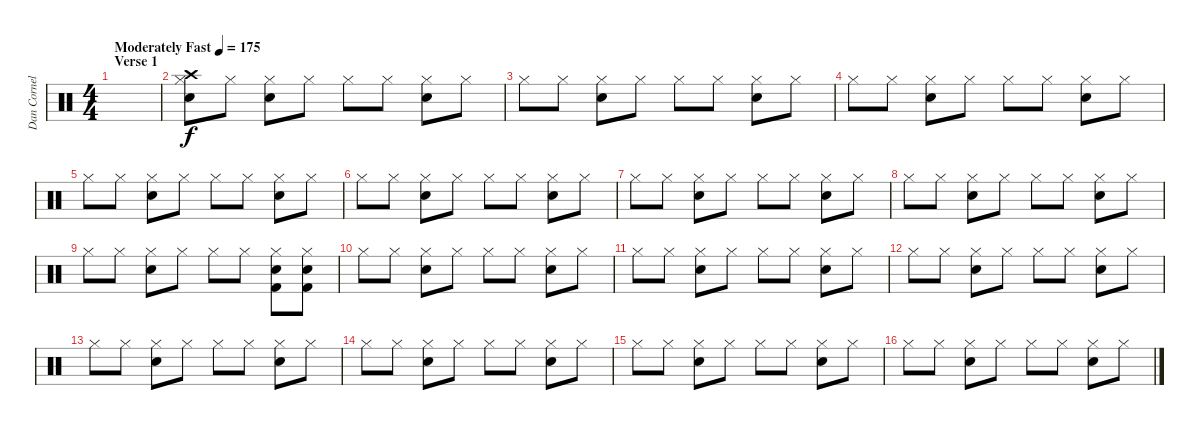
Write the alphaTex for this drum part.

\track ("Dan Cornelius" "Dan Cornel") {instrument percussion}
\staff {score}
\articulation defaults
\ts (4 4)
\section ("" "Verse 1")
\tempo (175 "Moderately Fast")
\clef neutral
\ks c
|
("Hi-Hat (closed)" "Crash high (hit)" "Electric Snare (hit)").8 "Hi-Hat (closed)".8 ("Hi-Hat (closed)" "Electric Snare (hit)").8 "Hi-Hat (closed)".8 "Hi-Hat (closed)".8 "Hi-Hat (closed)".8 ("Hi-Hat (closed)" "Electric Snare (hit)").8 "Hi-Hat (closed)".8 |
"Hi-Hat (closed)".8 "Hi-Hat (closed)".8 ("Hi-Hat (closed)" "Electric Snare (hit)").8 "Hi-Hat (closed)".8 "Hi-Hat (closed)".8 "Hi-Hat (closed)".8 ("Hi-Hat (closed)" "Electric Snare (hit)").8 "Hi-Hat (closed)".8 |
"Hi-Hat (closed)".8 "Hi-Hat (closed)".8 ("Hi-Hat (closed)" "Electric Snare (hit)").8 "Hi-Hat (closed)".8 "Hi-Hat (closed)".8 "Hi-Hat (closed)".8 ("Hi-Hat (closed)" "Electric Snare (hit)").8 "Hi-Hat (closed)".8 |
"Hi-Hat (closed)".8 "Hi-Hat (closed)".8 ("Hi-Hat (closed)" "Electric Snare (hit)").8 "Hi-Hat (closed)".8 "Hi-Hat (closed)".8 "Hi-Hat (closed)".8 ("Hi-Hat (closed)" "Electric Snare (hit)").8 "Hi-Hat (closed)".8 |
"Hi-Hat (closed)".8 "Hi-Hat (closed)".8 ("Hi-Hat (closed)" "Electric Snare (hit)").8 "Hi-Hat (closed)".8 "Hi-Hat (closed)".8 "Hi-Hat (closed)".8 ("Hi-Hat (closed)" "Electric Snare (hit)").8 "Hi-Hat (closed)".8 |
"Hi-Hat (closed)".8 "Hi-Hat (closed)".8 ("Hi-Hat (closed)" "Electric Snare (hit)").8 "Hi-Hat (closed)".8 "Hi-Hat (closed)".8 "Hi-Hat (closed)".8 ("Hi-Hat (closed)" "Electric Snare (hit)").8 "Hi-Hat (closed)".8 |
"Hi-Hat (closed)".8 "Hi-Hat (closed)".8 ("Hi-Hat (closed)" "Electric Snare (hit)").8 "Hi-Hat (closed)".8 "Hi-Hat (closed)".8 "Hi-Hat (closed)".8 ("Hi-Hat (closed)" "Electric Snare (hit)").8 "Hi-Hat (closed)".8 |
"Hi-Hat (closed)".8 "Hi-Hat (closed)".8 ("Hi-Hat (closed)" "Electric Snare (hit)").8 "Hi-Hat (closed)".8 "Hi-Hat (closed)".8 "Hi-Hat (closed)".8 ("Hi-Hat (closed)" "Electric Snare (hit)" "Kick (hit) 2").8 ("Hi-Hat (closed)" "Electric Snare (hit)" "Kick (hit) 2").8 |
"Hi-Hat (closed)".8 "Hi-Hat (closed)".8 ("Hi-Hat (closed)" "Electric Snare (hit)").8 "Hi-Hat (closed)".8 "Hi-Hat (closed)".8 "Hi-Hat (closed)".8 ("Hi-Hat (closed)" "Electric Snare (hit)").8 "Hi-Hat (closed)".8 |
"Hi-Hat (closed)".8 "Hi-Hat (closed)".8 ("Hi-Hat (closed)" "Electric Snare (hit)").8 "Hi-Hat (closed)".8 "Hi-Hat (closed)".8 "Hi-Hat (closed)".8 ("Hi-Hat (closed)" "Electric Snare (hit)").8 "Hi-Hat (closed)".8 |
"Hi-Hat (closed)".8 "Hi-Hat (closed)".8 ("Hi-Hat (closed)" "Electric Snare (hit)").8 "Hi-Hat (closed)".8 "Hi-Hat (closed)".8 "Hi-Hat (closed)".8 ("Hi-Hat (closed)" "Electric Snare (hit)").8 "Hi-Hat (closed)".8 |
"Hi-Hat (closed)".8 "Hi-Hat (closed)".8 ("Hi-Hat (closed)" "Electric Snare (hit)").8 "Hi-Hat (closed)".8 "Hi-Hat (closed)".8 "Hi-Hat (closed)".8 ("Hi-Hat (closed)" "Electric Snare (hit)").8 "Hi-Hat (closed)".8 |
"Hi-Hat (closed)".8 "Hi-Hat (closed)".8 ("Hi-Hat (closed)" "Electric Snare (hit)").8 "Hi-Hat (closed)".8 "Hi-Hat (closed)".8 "Hi-Hat (closed)".8 ("Hi-Hat (closed)" "Electric Snare (hit)").8 "Hi-Hat (closed)".8 |
"Hi-Hat (closed)".8 "Hi-Hat (closed)".8 ("Hi-Hat (closed)" "Electric Snare (hit)").8 "Hi-Hat (closed)".8 "Hi-Hat (closed)".8 "Hi-Hat (closed)".8 ("Hi-Hat (closed)" "Electric Snare (hit)").8 "Hi-Hat (closed)".8 |
"Hi-Hat (closed)".8 "Hi-Hat (closed)".8 ("Hi-Hat (closed)" "Electric Snare (hit)").8 "Hi-Hat (closed)".8 "Hi-Hat (closed)".8 "Hi-Hat (closed)".8 ("Hi-Hat (closed)" "Electric Snare (hit)").8 "Hi-Hat (closed)".8
